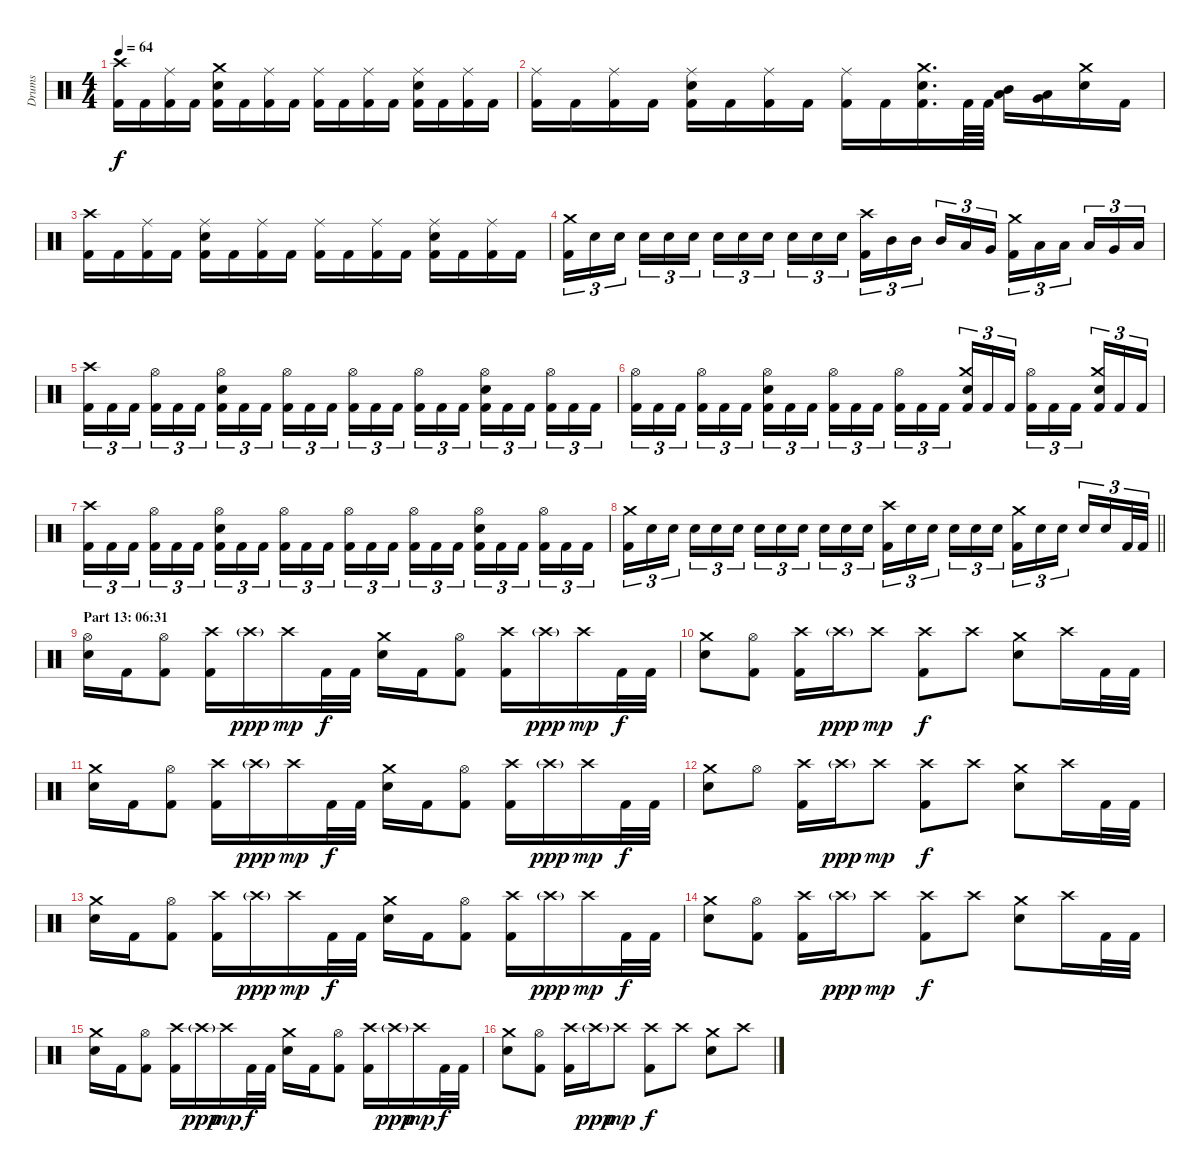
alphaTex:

\track ("Drums" "Drums") {instrument percussion}
\staff {score}
\articulation defaults
\ts (4 4)
\tempo 64
\clef neutral
\ks c
("Crash high (hit)" "Kick (hit) 2").16{dy f} "Kick (hit) 2".16 ("Ride (middle)" "Kick (hit) 2").16 "Kick (hit) 2".16 ("Crash medium (hit)" "Electric Snare (hit)" "Kick (hit) 2").16 "Kick (hit) 2".16 ("Ride (middle)" "Kick (hit) 2").16 "Kick (hit) 2".16 ("Ride (middle)" "Kick (hit) 2").16 "Kick (hit) 2".16 ("Ride (middle)" "Kick (hit) 2").16 "Kick (hit) 2".16 ("Ride (middle)" "Electric Snare (hit)" "Kick (hit) 2").16 "Kick (hit) 2".16 ("Ride (middle)" "Kick (hit) 2").16 "Kick (hit) 2".16 |
("Ride (middle)" "Kick (hit) 2").16 "Kick (hit) 2".16 ("Ride (middle)" "Kick (hit) 2").16 "Kick (hit) 2".16 ("Ride (middle)" "Electric Snare (hit)" "Kick (hit) 2").16 "Kick (hit) 2".16 ("Ride (middle)" "Kick (hit) 2").16 "Kick (hit) 2".16 ("Ride (middle)" "Kick (hit) 2").16 "Kick (hit) 2".16 ("Crash medium (hit)" "Electric Snare (hit)" "Kick (hit) 2").16{d} "Kick (hit) 2".64 "Kick (hit) 2".64 ("Mid Tom (hit)" "Low Tom (hit)").16 ("Low Tom (hit)" "Very Low Tom (hit)").16 ("Crash medium (hit)" "Electric Snare (hit)").16 "Kick (hit) 2".16 |
("Crash high (hit)" "Kick (hit) 2").16 "Kick (hit) 2".16 ("Ride (middle)" "Kick (hit) 2").16 "Kick (hit) 2".16 ("Ride (middle)" "Electric Snare (hit)" "Kick (hit) 2").16 "Kick (hit) 2".16 ("Ride (middle)" "Kick (hit) 2").16 "Kick (hit) 2".16 ("Ride (middle)" "Kick (hit) 2").16 "Kick (hit) 2".16 ("Ride (middle)" "Kick (hit) 2").16 "Kick (hit) 2".16 ("Ride (middle)" "Electric Snare (hit)" "Kick (hit) 2").16 "Kick (hit) 2".16 ("Ride (middle)" "Kick (hit) 2").16 "Kick (hit) 2".16 |
("Crash medium (hit)" "Kick (hit) 2").16{tu (3 2)} "Electric Snare (hit)".16{tu (3 2)} "Electric Snare (hit)".16{tu (3 2) beam splitsecondary} "Electric Snare (hit)".16{tu (3 2)} "Electric Snare (hit)".16{tu (3 2)} "Electric Snare (hit)".16{tu (3 2)} "Electric Snare (hit)".16{tu (3 2)} "Electric Snare (hit)".16{tu (3 2)} "Electric Snare (hit)".16{tu (3 2) beam splitsecondary} "Electric Snare (hit)".16{tu (3 2)} "Electric Snare (hit)".16{tu (3 2)} "Electric Snare (hit)".16{tu (3 2)} ("Crash high (hit)" "Kick (hit) 2").16{tu (3 2)} "Mid Tom (hit)".16{tu (3 2)} "Mid Tom (hit)".16{tu (3 2) beam splitsecondary} "Mid Tom (hit)".16{tu (3 2)} "Low Tom (hit)".16{tu (3 2)} "Very Low Tom (hit)".16{tu (3 2)} ("Crash medium (hit)" "Kick (hit) 2").16{tu (3 2)} "Low Tom (hit)".16{tu (3 2)} "Low Tom (hit)".16{tu (3 2) beam splitsecondary} "Low Tom (hit)".16{tu (3 2)} "Very Low Tom (hit)".16{tu (3 2)} "Low Floor Tom (hit)".16{tu (3 2)} |
("Crash high (hit)" "Kick (hit) 2").16{tu (3 2)} "Kick (hit) 2".16{tu (3 2)} "Kick (hit) 2".16{tu (3 2) beam splitsecondary} ("Hi-Hat (open)" "Kick (hit) 2").16{tu (3 2)} "Kick (hit) 2".16{tu (3 2)} "Kick (hit) 2".16{tu (3 2)} ("Hi-Hat (open)" "Electric Snare (hit)" "Kick (hit) 2").16{tu (3 2)} "Kick (hit) 2".16{tu (3 2)} "Kick (hit) 2".16{tu (3 2) beam splitsecondary} ("Hi-Hat (open)" "Kick (hit) 2").16{tu (3 2)} "Kick (hit) 2".16{tu (3 2)} "Kick (hit) 2".16{tu (3 2)} ("Hi-Hat (open)" "Kick (hit) 2").16{tu (3 2)} "Kick (hit) 2".16{tu (3 2)} "Kick (hit) 2".16{tu (3 2) beam splitsecondary} ("Hi-Hat (open)" "Kick (hit) 2").16{tu (3 2)} "Kick (hit) 2".16{tu (3 2)} "Kick (hit) 2".16{tu (3 2)} ("Hi-Hat (open)" "Electric Snare (hit)" "Kick (hit) 2").16{tu (3 2)} "Kick (hit) 2".16{tu (3 2)} "Kick (hit) 2".16{tu (3 2) beam splitsecondary} ("Hi-Hat (open)" "Kick (hit) 2").16{tu (3 2)} "Kick (hit) 2".16{tu (3 2)} "Kick (hit) 2".16{tu (3 2)} |
("Hi-Hat (open)" "Kick (hit) 2").16{tu (3 2)} "Kick (hit) 2".16{tu (3 2)} "Kick (hit) 2".16{tu (3 2) beam splitsecondary} ("Hi-Hat (open)" "Kick (hit) 2").16{tu (3 2)} "Kick (hit) 2".16{tu (3 2)} "Kick (hit) 2".16{tu (3 2)} ("Hi-Hat (open)" "Electric Snare (hit)" "Kick (hit) 2").16{tu (3 2)} "Kick (hit) 2".16{tu (3 2)} "Kick (hit) 2".16{tu (3 2) beam splitsecondary} ("Hi-Hat (open)" "Kick (hit) 2").16{tu (3 2)} "Kick (hit) 2".16{tu (3 2)} "Kick (hit) 2".16{tu (3 2)} ("Hi-Hat (open)" "Kick (hit) 2").16{tu (3 2)} "Kick (hit) 2".16{tu (3 2)} "Kick (hit) 2".16{tu (3 2) beam splitsecondary} ("Crash medium (hit)" "Electric Snare (hit)" "Kick (hit) 2").16{tu (3 2)} "Kick (hit) 2".16{tu (3 2)} "Kick (hit) 2".16{tu (3 2)} ("Hi-Hat (open)" "Kick (hit) 2").16{tu (3 2)} "Kick (hit) 2".16{tu (3 2)} "Kick (hit) 2".16{tu (3 2) beam splitsecondary} ("Crash medium (hit)" "Electric Snare (hit)" "Kick (hit) 2").16{tu (3 2)} "Kick (hit) 2".16{tu (3 2)} "Kick (hit) 2".16{tu (3 2)} |
("Crash high (hit)" "Kick (hit) 2").16{tu (3 2)} "Kick (hit) 2".16{tu (3 2)} "Kick (hit) 2".16{tu (3 2) beam splitsecondary} ("Hi-Hat (open)" "Kick (hit) 2").16{tu (3 2)} "Kick (hit) 2".16{tu (3 2)} "Kick (hit) 2".16{tu (3 2)} ("Hi-Hat (open)" "Electric Snare (hit)" "Kick (hit) 2").16{tu (3 2)} "Kick (hit) 2".16{tu (3 2)} "Kick (hit) 2".16{tu (3 2) beam splitsecondary} ("Hi-Hat (open)" "Kick (hit) 2").16{tu (3 2)} "Kick (hit) 2".16{tu (3 2)} "Kick (hit) 2".16{tu (3 2)} ("Hi-Hat (open)" "Kick (hit) 2").16{tu (3 2)} "Kick (hit) 2".16{tu (3 2)} "Kick (hit) 2".16{tu (3 2) beam splitsecondary} ("Hi-Hat (open)" "Kick (hit) 2").16{tu (3 2)} "Kick (hit) 2".16{tu (3 2)} "Kick (hit) 2".16{tu (3 2)} ("Hi-Hat (open)" "Electric Snare (hit)" "Kick (hit) 2").16{tu (3 2)} "Kick (hit) 2".16{tu (3 2)} "Kick (hit) 2".16{tu (3 2) beam splitsecondary} ("Hi-Hat (open)" "Kick (hit) 2").16{tu (3 2)} "Kick (hit) 2".16{tu (3 2)} "Kick (hit) 2".16{tu (3 2)} |
\barLineRight lightlight
("Crash medium (hit)" "Kick (hit) 2").16{tu (3 2)} "Electric Snare (hit)".16{tu (3 2)} "Electric Snare (hit)".16{tu (3 2) beam splitsecondary} "Electric Snare (hit)".16{tu (3 2)} "Electric Snare (hit)".16{tu (3 2)} "Electric Snare (hit)".16{tu (3 2)} "Electric Snare (hit)".16{tu (3 2)} "Electric Snare (hit)".16{tu (3 2)} "Electric Snare (hit)".16{tu (3 2) beam splitsecondary} "Electric Snare (hit)".16{tu (3 2)} "Electric Snare (hit)".16{tu (3 2)} "Electric Snare (hit)".16{tu (3 2)} ("Crash high (hit)" "Kick (hit) 2").16{tu (3 2)} "Electric Snare (hit)".16{tu (3 2)} "Electric Snare (hit)".16{tu (3 2) beam splitsecondary} "Electric Snare (hit)".16{tu (3 2)} "Electric Snare (hit)".16{tu (3 2)} "Electric Snare (hit)".16{tu (3 2)} ("Crash medium (hit)" "Kick (hit) 2").16{tu (3 2)} "Electric Snare (hit)".16{tu (3 2)} "Electric Snare (hit)".16{tu (3 2) beam splitsecondary} "Electric Snare (hit)".16{tu (3 2)} "Electric Snare (hit)".16{tu (3 2)} "Kick (hit) 2".32{tu (3 2)} "Kick (hit) 2".32{tu (3 2)} |
\section ("" "Part 13: 06:31")
("Hi-Hat (open)" "Electric Snare (hit)").16 "Kick (hit) 2".16 ("Hi-Hat (open)" "Kick (hit) 2").8 ("Crash high (hit)" "Kick (hit) 2").16 "Crash high (hit)"{g}.16{dy ppp} "Crash high (hit)".16{dy mp} "Kick (hit) 2".32{dy f} "Kick (hit) 2".32 ("Crash medium (hit)" "Electric Snare (hit)").16 "Kick (hit) 2".16 ("Hi-Hat (open)" "Kick (hit) 2").8 ("Crash high (hit)" "Kick (hit) 2").16 "Crash high (hit)"{g}.16{dy ppp} "Crash high (hit)".16{dy mp} "Kick (hit) 2".32{dy f} "Kick (hit) 2".32 |
("Crash medium (hit)" "Electric Snare (hit)").8 ("Hi-Hat (open)" "Kick (hit) 2").8 ("Crash high (hit)" "Kick (hit) 2").16 "Crash high (hit)"{g}.16{dy ppp} "Crash high (hit)".8{dy mp} ("Crash high (hit)" "Kick (hit) 2").8{dy f} "Crash high (hit)".8 ("Crash medium (hit)" "Electric Snare (hit)").8 "Crash high (hit)".16 "Kick (hit) 2".32 "Kick (hit) 2".32 |
("Crash medium (hit)" "Electric Snare (hit)").16 "Kick (hit) 2".16 ("Hi-Hat (open)" "Kick (hit) 2").8 ("Crash high (hit)" "Kick (hit) 2").16 "Crash high (hit)"{g}.16{dy ppp} "Crash high (hit)".16{dy mp} "Kick (hit) 2".32{dy f} "Kick (hit) 2".32 ("Crash medium (hit)" "Electric Snare (hit)").16 "Kick (hit) 2".16 ("Hi-Hat (open)" "Kick (hit) 2").8 ("Crash high (hit)" "Kick (hit) 2").16 "Crash high (hit)"{g}.16{dy ppp} "Crash high (hit)".16{dy mp} "Kick (hit) 2".32{dy f} "Kick (hit) 2".32 |
("Crash medium (hit)" "Electric Snare (hit)").8 "Hi-Hat (open)".8 ("Crash high (hit)" "Kick (hit) 2").16 "Crash high (hit)"{g}.16{dy ppp} "Crash high (hit)".8{dy mp} ("Crash high (hit)" "Kick (hit) 2").8{dy f} "Crash high (hit)".8 ("Crash medium (hit)" "Electric Snare (hit)").8 "Crash high (hit)".16 "Kick (hit) 2".32 "Kick (hit) 2".32 |
("Crash medium (hit)" "Electric Snare (hit)").16 "Kick (hit) 2".16 ("Hi-Hat (open)" "Kick (hit) 2").8 ("Crash high (hit)" "Kick (hit) 2").16 "Crash high (hit)"{g}.16{dy ppp} "Crash high (hit)".16{dy mp} "Kick (hit) 2".32{dy f} "Kick (hit) 2".32 ("Crash medium (hit)" "Electric Snare (hit)").16 "Kick (hit) 2".16 ("Hi-Hat (open)" "Kick (hit) 2").8 ("Crash high (hit)" "Kick (hit) 2").16 "Crash high (hit)"{g}.16{dy ppp} "Crash high (hit)".16{dy mp} "Kick (hit) 2".32{dy f} "Kick (hit) 2".32 |
("Crash medium (hit)" "Electric Snare (hit)").8 ("Hi-Hat (open)" "Kick (hit) 2").8 ("Crash high (hit)" "Kick (hit) 2").16 "Crash high (hit)"{g}.16{dy ppp} "Crash high (hit)".8{dy mp} ("Crash high (hit)" "Kick (hit) 2").8{dy f} "Crash high (hit)".8 ("Crash medium (hit)" "Electric Snare (hit)").8 "Crash high (hit)".16 "Kick (hit) 2".32 "Kick (hit) 2".32 |
("Crash medium (hit)" "Electric Snare (hit)").16 "Kick (hit) 2".16 ("Hi-Hat (open)" "Kick (hit) 2").8 ("Crash high (hit)" "Kick (hit) 2").16 "Crash high (hit)"{g}.16{dy ppp} "Crash high (hit)".16{dy mp} "Kick (hit) 2".32{dy f} "Kick (hit) 2".32 ("Crash medium (hit)" "Electric Snare (hit)").16 "Kick (hit) 2".16 ("Hi-Hat (open)" "Kick (hit) 2").8 ("Crash high (hit)" "Kick (hit) 2").16 "Crash high (hit)"{g}.16{dy ppp} "Crash high (hit)".16{dy mp} "Kick (hit) 2".32{dy f} "Kick (hit) 2".32 |
("Crash medium (hit)" "Electric Snare (hit)").8 ("Hi-Hat (open)" "Kick (hit) 2").8 ("Crash high (hit)" "Kick (hit) 2").16 "Crash high (hit)"{g}.16{dy ppp} "Crash high (hit)".8{dy mp} ("Crash high (hit)" "Kick (hit) 2").8{dy f} "Crash high (hit)".8 ("Crash medium (hit)" "Electric Snare (hit)").8 "Crash high (hit)".8
